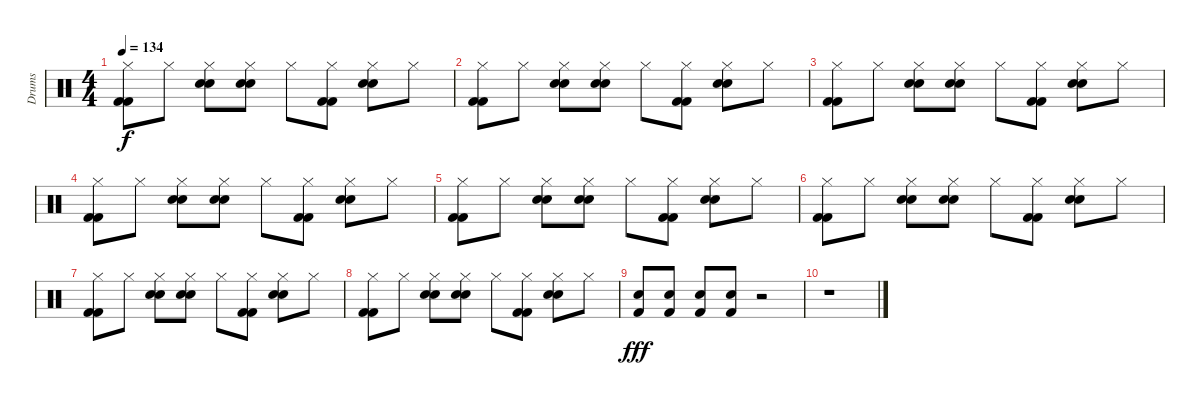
\track ("Drums" "Drums") {instrument percussion}
\staff {score}
\articulation defaults
\ts (4 4)
\tempo 134
\clef neutral
\ks c
("Kick (hit) 2" "Kick (hit) 2" "Hi-Hat (closed)").8{dy f} "Hi-Hat (closed)".8 ("Snare (hit) 2" "Hi-Hat (closed)" "Electric Snare (hit)").8 ("Snare (hit) 2" "Hi-Hat (closed)" "Electric Snare (hit)").8 "Hi-Hat (closed)".8 ("Kick (hit) 2" "Kick (hit) 2" "Hi-Hat (closed)").8 ("Snare (hit) 2" "Hi-Hat (closed)" "Electric Snare (hit)").8 "Hi-Hat (closed)".8 |
("Kick (hit) 2" "Kick (hit) 2" "Hi-Hat (closed)").8 "Hi-Hat (closed)".8 ("Snare (hit) 2" "Hi-Hat (closed)" "Electric Snare (hit)").8 ("Snare (hit) 2" "Hi-Hat (closed)" "Electric Snare (hit)").8 "Hi-Hat (closed)".8 ("Kick (hit) 2" "Kick (hit) 2" "Hi-Hat (closed)").8 ("Snare (hit) 2" "Hi-Hat (closed)" "Electric Snare (hit)").8 "Hi-Hat (closed)".8 |
("Kick (hit) 2" "Kick (hit) 2" "Hi-Hat (closed)").8 "Hi-Hat (closed)".8 ("Snare (hit) 2" "Hi-Hat (closed)" "Electric Snare (hit)").8 ("Snare (hit) 2" "Hi-Hat (closed)" "Electric Snare (hit)").8 "Hi-Hat (closed)".8 ("Kick (hit) 2" "Kick (hit) 2" "Hi-Hat (closed)").8 ("Snare (hit) 2" "Hi-Hat (closed)" "Electric Snare (hit)").8 "Hi-Hat (closed)".8 |
("Kick (hit) 2" "Kick (hit) 2" "Hi-Hat (closed)").8 "Hi-Hat (closed)".8 ("Snare (hit) 2" "Hi-Hat (closed)" "Electric Snare (hit)").8 ("Snare (hit) 2" "Hi-Hat (closed)" "Electric Snare (hit)").8 "Hi-Hat (closed)".8 ("Kick (hit) 2" "Kick (hit) 2" "Hi-Hat (closed)").8 ("Snare (hit) 2" "Hi-Hat (closed)" "Electric Snare (hit)").8 "Hi-Hat (closed)".8 |
("Kick (hit) 2" "Kick (hit) 2" "Hi-Hat (closed)").8 "Hi-Hat (closed)".8 ("Snare (hit) 2" "Hi-Hat (closed)" "Electric Snare (hit)").8 ("Snare (hit) 2" "Hi-Hat (closed)" "Electric Snare (hit)").8 "Hi-Hat (closed)".8 ("Kick (hit) 2" "Kick (hit) 2" "Hi-Hat (closed)").8 ("Snare (hit) 2" "Hi-Hat (closed)" "Electric Snare (hit)").8 "Hi-Hat (closed)".8 |
("Kick (hit) 2" "Kick (hit) 2" "Hi-Hat (closed)").8 "Hi-Hat (closed)".8 ("Snare (hit) 2" "Hi-Hat (closed)" "Electric Snare (hit)").8 ("Snare (hit) 2" "Hi-Hat (closed)" "Electric Snare (hit)").8 "Hi-Hat (closed)".8 ("Kick (hit) 2" "Kick (hit) 2" "Hi-Hat (closed)").8 ("Snare (hit) 2" "Hi-Hat (closed)" "Electric Snare (hit)").8 "Hi-Hat (closed)".8 |
("Kick (hit) 2" "Kick (hit) 2" "Hi-Hat (closed)").8 "Hi-Hat (closed)".8 ("Snare (hit) 2" "Hi-Hat (closed)" "Electric Snare (hit)").8 ("Snare (hit) 2" "Hi-Hat (closed)" "Electric Snare (hit)").8 "Hi-Hat (closed)".8 ("Kick (hit) 2" "Kick (hit) 2" "Hi-Hat (closed)").8 ("Snare (hit) 2" "Hi-Hat (closed)" "Electric Snare (hit)").8 "Hi-Hat (closed)".8 |
("Kick (hit) 2" "Kick (hit) 2" "Hi-Hat (closed)").8 "Hi-Hat (closed)".8 ("Snare (hit) 2" "Hi-Hat (closed)" "Electric Snare (hit)").8 ("Snare (hit) 2" "Hi-Hat (closed)" "Electric Snare (hit)").8 "Hi-Hat (closed)".8 ("Kick (hit) 2" "Kick (hit) 2" "Hi-Hat (closed)").8 ("Snare (hit) 2" "Hi-Hat (closed)" "Electric Snare (hit)").8 "Hi-Hat (closed)".8 |
("Snare (hit) 2" "Kick (hit) 2").8{dy fff} ("Snare (hit) 2" "Kick (hit) 2").8 ("Snare (hit) 2" "Kick (hit) 2").8 ("Snare (hit) 2" "Kick (hit) 2").8 r.2 |
r.1
